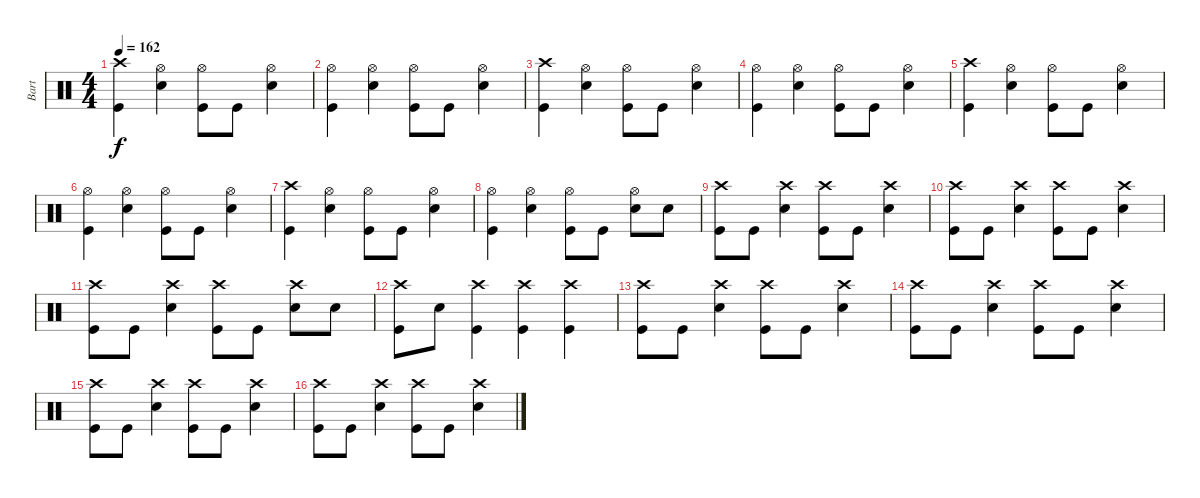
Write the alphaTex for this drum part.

\track ("Bart" "Bart") {instrument percussion}
\staff {score}
\articulation defaults
\ts (4 4)
\tempo 162
\clef neutral
\ks c
("Kick (hit)" "Crash high (hit)").4{dy f} ("Electric Snare (hit)" "Hi-Hat (open)").4 ("Kick (hit)" "Hi-Hat (open)").8 "Kick (hit)".8 ("Electric Snare (hit)" "Hi-Hat (open)").4 |
("Kick (hit)" "Hi-Hat (open)").4 ("Electric Snare (hit)" "Hi-Hat (open)").4 ("Kick (hit)" "Hi-Hat (open)").8 "Kick (hit)".8 ("Electric Snare (hit)" "Hi-Hat (open)").4 |
("Kick (hit)" "Crash high (hit)").4 ("Electric Snare (hit)" "Hi-Hat (open)").4 ("Kick (hit)" "Hi-Hat (open)").8 "Kick (hit)".8 ("Electric Snare (hit)" "Hi-Hat (open)").4 |
("Kick (hit)" "Hi-Hat (open)").4 ("Electric Snare (hit)" "Hi-Hat (open)").4 ("Kick (hit)" "Hi-Hat (open)").8 "Kick (hit)".8 ("Electric Snare (hit)" "Hi-Hat (open)").4 |
("Kick (hit)" "Crash high (hit)").4 ("Electric Snare (hit)" "Hi-Hat (open)").4 ("Kick (hit)" "Hi-Hat (open)").8 "Kick (hit)".8 ("Electric Snare (hit)" "Hi-Hat (open)").4 |
("Kick (hit)" "Hi-Hat (open)").4 ("Electric Snare (hit)" "Hi-Hat (open)").4 ("Kick (hit)" "Hi-Hat (open)").8 "Kick (hit)".8 ("Electric Snare (hit)" "Hi-Hat (open)").4 |
("Kick (hit)" "Crash high (hit)").4 ("Electric Snare (hit)" "Hi-Hat (open)").4 ("Kick (hit)" "Hi-Hat (open)").8 "Kick (hit)".8 ("Electric Snare (hit)" "Hi-Hat (open)").4 |
("Kick (hit)" "Hi-Hat (open)").4 ("Electric Snare (hit)" "Hi-Hat (open)").4 ("Kick (hit)" "Hi-Hat (open)").8 "Kick (hit)".8 ("Electric Snare (hit)" "Hi-Hat (open)").8 "Electric Snare (hit)".8 |
("Kick (hit)" "Crash high (hit)").8 "Kick (hit)".8 ("Electric Snare (hit)" "Crash high (hit)").4 ("Kick (hit)" "Crash high (hit)").8 "Kick (hit)".8 ("Electric Snare (hit)" "Crash high (hit)").4 |
("Kick (hit)" "Crash high (hit)").8 "Kick (hit)".8 ("Electric Snare (hit)" "Crash high (hit)").4 ("Kick (hit)" "Crash high (hit)").8 "Kick (hit)".8 ("Electric Snare (hit)" "Crash high (hit)").4 |
("Kick (hit)" "Crash high (hit)").8 "Kick (hit)".8 ("Electric Snare (hit)" "Crash high (hit)").4 ("Kick (hit)" "Crash high (hit)").8 "Kick (hit)".8 ("Electric Snare (hit)" "Crash high (hit)").8 "Electric Snare (hit)".8 |
("Kick (hit)" "Crash high (hit)").8 "Electric Snare (hit)".8 ("Kick (hit)" "Crash high (hit)").4 ("Kick (hit)" "Crash high (hit)").4 ("Kick (hit)" "Crash high (hit)").4 |
("Kick (hit)" "Crash high (hit)").8 "Kick (hit)".8 ("Electric Snare (hit)" "Crash high (hit)").4 ("Kick (hit)" "Crash high (hit)").8 "Kick (hit)".8 ("Electric Snare (hit)" "Crash high (hit)").4 |
("Kick (hit)" "Crash high (hit)").8 "Kick (hit)".8 ("Electric Snare (hit)" "Crash high (hit)").4 ("Kick (hit)" "Crash high (hit)").8 "Kick (hit)".8 ("Electric Snare (hit)" "Crash high (hit)").4 |
("Kick (hit)" "Crash high (hit)").8 "Kick (hit)".8 ("Electric Snare (hit)" "Crash high (hit)").4 ("Kick (hit)" "Crash high (hit)").8 "Kick (hit)".8 ("Electric Snare (hit)" "Crash high (hit)").4 |
("Kick (hit)" "Crash high (hit)").8 "Kick (hit)".8 ("Electric Snare (hit)" "Crash high (hit)").4 ("Kick (hit)" "Crash high (hit)").8 "Kick (hit)".8 ("Electric Snare (hit)" "Crash high (hit)").4
